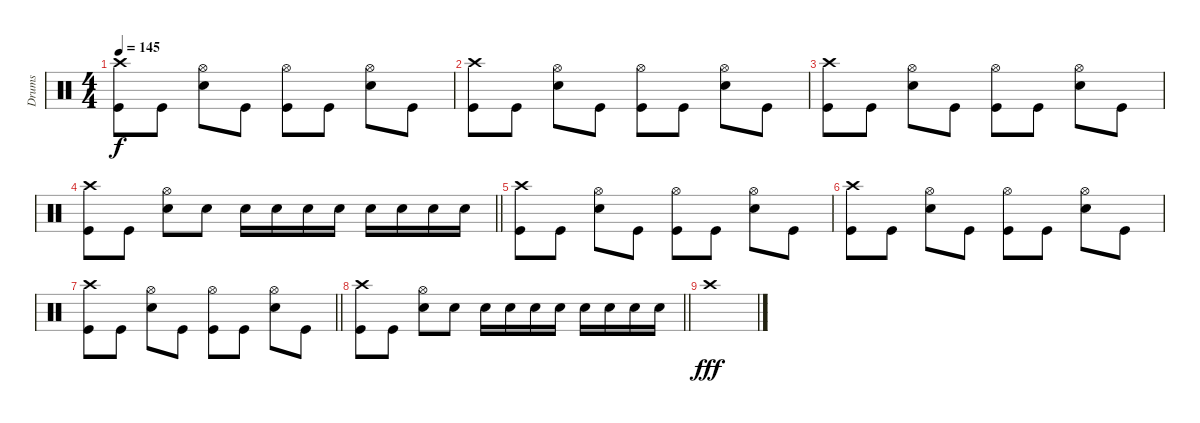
\track ("Drums" "Drums") {instrument percussion}
\staff {score}
\articulation defaults
\ts (4 4)
\tempo 145
\clef neutral
\ks c
("Crash high (hit)" "Kick (hit)").8{dy f} "Kick (hit)".8 ("Hi-Hat (open)" "Snare (hit) 2").8 "Kick (hit)".8 ("Hi-Hat (open)" "Kick (hit)").8 "Kick (hit)".8 ("Hi-Hat (open)" "Snare (hit) 2").8 "Kick (hit)".8 |
("Crash high (hit)" "Kick (hit)").8 "Kick (hit)".8 ("Hi-Hat (open)" "Snare (hit) 2").8 "Kick (hit)".8 ("Hi-Hat (open)" "Kick (hit)").8 "Kick (hit)".8 ("Hi-Hat (open)" "Snare (hit) 2").8 "Kick (hit)".8 |
("Crash high (hit)" "Kick (hit)").8 "Kick (hit)".8 ("Hi-Hat (open)" "Snare (hit) 2").8 "Kick (hit)".8 ("Hi-Hat (open)" "Kick (hit)").8 "Kick (hit)".8 ("Hi-Hat (open)" "Snare (hit) 2").8 "Kick (hit)".8 |
\barLineRight lightlight
("Crash high (hit)" "Kick (hit)").8 "Kick (hit)".8 ("Hi-Hat (open)" "Snare (hit) 2").8 "Snare (hit) 2".8 "Snare (hit) 2".16 "Snare (hit) 2".16 "Snare (hit) 2".16 "Snare (hit) 2".16 "Snare (hit) 2".16 "Snare (hit) 2".16 "Snare (hit) 2".16 "Snare (hit) 2".16 |
("Crash high (hit)" "Kick (hit)").8 "Kick (hit)".8 ("Hi-Hat (open)" "Snare (hit) 2").8 "Kick (hit)".8 ("Hi-Hat (open)" "Kick (hit)").8 "Kick (hit)".8 ("Hi-Hat (open)" "Snare (hit) 2").8 "Kick (hit)".8 |
("Crash high (hit)" "Kick (hit)").8 "Kick (hit)".8 ("Hi-Hat (open)" "Snare (hit) 2").8 "Kick (hit)".8 ("Hi-Hat (open)" "Kick (hit)").8 "Kick (hit)".8 ("Hi-Hat (open)" "Snare (hit) 2").8 "Kick (hit)".8 |
\barLineRight lightlight
("Crash high (hit)" "Kick (hit)").8 "Kick (hit)".8 ("Hi-Hat (open)" "Snare (hit) 2").8 "Kick (hit)".8 ("Hi-Hat (open)" "Kick (hit)").8 "Kick (hit)".8 ("Hi-Hat (open)" "Snare (hit) 2").8 "Kick (hit)".8 |
\barLineRight lightlight
("Crash high (hit)" "Kick (hit)").8 "Kick (hit)".8 ("Hi-Hat (open)" "Snare (hit) 2").8 "Snare (hit) 2".8 "Snare (hit) 2".16 "Snare (hit) 2".16 "Snare (hit) 2".16 "Snare (hit) 2".16 "Snare (hit) 2".16 "Snare (hit) 2".16 "Snare (hit) 2".16 "Snare (hit) 2".16 |
"Crash high (hit)".1{dy fff}
